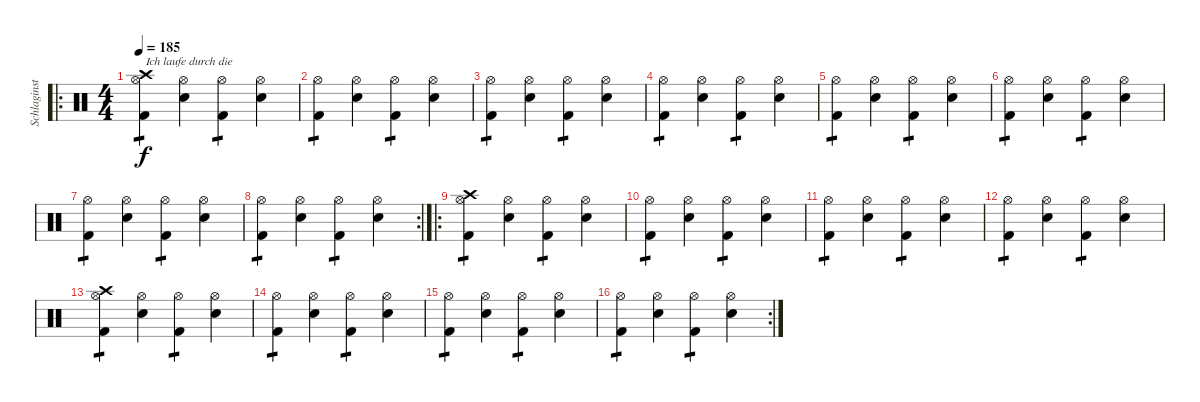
\track ("Schlaginstrumente - Auswahl" "Schlaginst") {instrument percussion}
\staff {score}
\articulation defaults
\ro
\ts (4 4)
\tempo 185
\clef neutral
\ks c
("Hi-Hat (open)" "Kick (hit) 2" "Crash high (hit)").4{txt "Ich laufe durch die" tp 1 dy f} ("Hi-Hat (open)" "Electric Snare (hit)").4 ("Hi-Hat (open)" "Kick (hit) 2").4{tp 1} ("Hi-Hat (open)" "Electric Snare (hit)").4 |
("Hi-Hat (open)" "Kick (hit) 2").4{tp 1} ("Hi-Hat (open)" "Electric Snare (hit)").4 ("Hi-Hat (open)" "Kick (hit) 2").4{tp 1} ("Hi-Hat (open)" "Electric Snare (hit)").4 |
("Hi-Hat (open)" "Kick (hit) 2").4{tp 1} ("Hi-Hat (open)" "Electric Snare (hit)").4 ("Hi-Hat (open)" "Kick (hit) 2").4{tp 1} ("Hi-Hat (open)" "Electric Snare (hit)").4 |
("Hi-Hat (open)" "Kick (hit) 2").4{tp 1} ("Hi-Hat (open)" "Electric Snare (hit)").4 ("Hi-Hat (open)" "Kick (hit) 2").4{tp 1} ("Hi-Hat (open)" "Electric Snare (hit)").4 |
("Hi-Hat (open)" "Kick (hit) 2").4{tp 1} ("Hi-Hat (open)" "Electric Snare (hit)").4 ("Hi-Hat (open)" "Kick (hit) 2").4{tp 1} ("Hi-Hat (open)" "Electric Snare (hit)").4 |
("Hi-Hat (open)" "Kick (hit) 2").4{tp 1} ("Hi-Hat (open)" "Electric Snare (hit)").4 ("Hi-Hat (open)" "Kick (hit) 2").4{tp 1} ("Hi-Hat (open)" "Electric Snare (hit)").4 |
("Hi-Hat (open)" "Kick (hit) 2").4{tp 1} ("Hi-Hat (open)" "Electric Snare (hit)").4 ("Hi-Hat (open)" "Kick (hit) 2").4{tp 1} ("Hi-Hat (open)" "Electric Snare (hit)").4 |
\rc 2
("Hi-Hat (open)" "Kick (hit) 2").4{tp 1} ("Hi-Hat (open)" "Electric Snare (hit)").4 ("Hi-Hat (open)" "Kick (hit) 2").4{tp 1} ("Hi-Hat (open)" "Electric Snare (hit)").4 |
\ro
("Hi-Hat (open)" "Kick (hit) 2" "Crash high (hit)").4{tp 1} ("Hi-Hat (open)" "Electric Snare (hit)").4 ("Hi-Hat (open)" "Kick (hit) 2").4{tp 1} ("Hi-Hat (open)" "Electric Snare (hit)").4 |
("Hi-Hat (open)" "Kick (hit) 2").4{tp 1} ("Hi-Hat (open)" "Electric Snare (hit)").4 ("Hi-Hat (open)" "Kick (hit) 2").4{tp 1} ("Hi-Hat (open)" "Electric Snare (hit)").4 |
("Hi-Hat (open)" "Kick (hit) 2").4{tp 1} ("Hi-Hat (open)" "Electric Snare (hit)").4 ("Hi-Hat (open)" "Kick (hit) 2").4{tp 1} ("Hi-Hat (open)" "Electric Snare (hit)").4 |
("Hi-Hat (open)" "Kick (hit) 2").4{tp 1} ("Hi-Hat (open)" "Electric Snare (hit)").4 ("Hi-Hat (open)" "Kick (hit) 2").4{tp 1} ("Hi-Hat (open)" "Electric Snare (hit)").4 |
("Hi-Hat (open)" "Kick (hit) 2" "Crash high (hit)").4{tp 1} ("Hi-Hat (open)" "Electric Snare (hit)").4 ("Hi-Hat (open)" "Kick (hit) 2").4{tp 1} ("Hi-Hat (open)" "Electric Snare (hit)").4 |
("Hi-Hat (open)" "Kick (hit) 2").4{tp 1} ("Hi-Hat (open)" "Electric Snare (hit)").4 ("Hi-Hat (open)" "Kick (hit) 2").4{tp 1} ("Hi-Hat (open)" "Electric Snare (hit)").4 |
("Hi-Hat (open)" "Kick (hit) 2").4{tp 1} ("Hi-Hat (open)" "Electric Snare (hit)").4 ("Hi-Hat (open)" "Kick (hit) 2").4{tp 1} ("Hi-Hat (open)" "Electric Snare (hit)").4 |
\rc 2
("Hi-Hat (open)" "Kick (hit) 2").4{tp 1} ("Hi-Hat (open)" "Electric Snare (hit)").4 ("Hi-Hat (open)" "Kick (hit) 2").4{tp 1} ("Hi-Hat (open)" "Electric Snare (hit)").4
